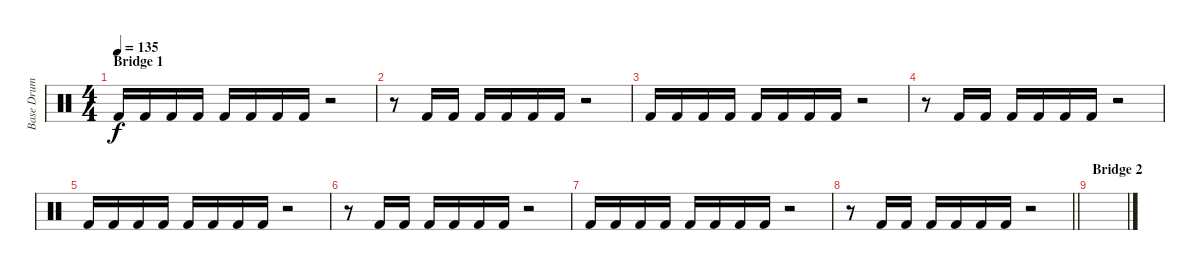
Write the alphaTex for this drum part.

\track ("Base Drum Bridge" "Base Drum ") {instrument percussion}
\staff {score}
\articulation defaults
\ts (4 4)
\section ("" "Bridge 1")
\tempo 135
\clef neutral
\ks c "Kick (hit) 2".16{dy f} "Kick (hit) 2".16 "Kick (hit) 2".16 "Kick (hit) 2".16 "Kick (hit) 2".16 "Kick (hit) 2".16 "Kick (hit) 2".16 "Kick (hit) 2".16
r.2 |
r.8 "Kick (hit) 2".16 "Kick (hit) 2".16 "Kick (hit) 2".16 "Kick (hit) 2".16 "Kick (hit) 2".16 "Kick (hit) 2".16 r.2 |
"Kick (hit) 2".16 "Kick (hit) 2".16 "Kick (hit) 2".16 "Kick (hit) 2".16 "Kick (hit) 2".16 "Kick (hit) 2".16 "Kick (hit) 2".16 "Kick (hit) 2".16 r.2 |
r.8 "Kick (hit) 2".16 "Kick (hit) 2".16 "Kick (hit) 2".16 "Kick (hit) 2".16 "Kick (hit) 2".16 "Kick (hit) 2".16 r.2 |
"Kick (hit) 2".16 "Kick (hit) 2".16 "Kick (hit) 2".16 "Kick (hit) 2".16 "Kick (hit) 2".16 "Kick (hit) 2".16 "Kick (hit) 2".16 "Kick (hit) 2".16 r.2 |
r.8 "Kick (hit) 2".16 "Kick (hit) 2".16 "Kick (hit) 2".16 "Kick (hit) 2".16 "Kick (hit) 2".16 "Kick (hit) 2".16 r.2 |
"Kick (hit) 2".16 "Kick (hit) 2".16 "Kick (hit) 2".16 "Kick (hit) 2".16 "Kick (hit) 2".16 "Kick (hit) 2".16 "Kick (hit) 2".16 "Kick (hit) 2".16 r.2 |
\barLineRight lightlight
r.8 "Kick (hit) 2".16 "Kick (hit) 2".16 "Kick (hit) 2".16 "Kick (hit) 2".16 "Kick (hit) 2".16 "Kick (hit) 2".16 r.2 |
\section ("" "Bridge 2")
